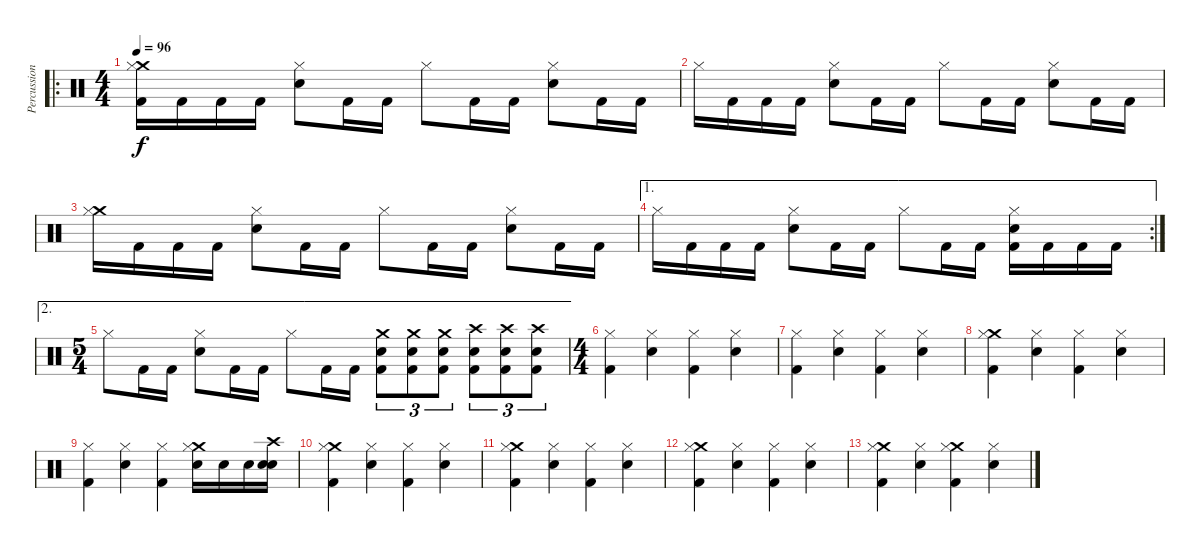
\track ("Percussion" "Percussion") {instrument percussion bank 255}
\staff {score}
\articulation defaults
\ro
\ts (4 4)
\tempo 96
\clef neutral
\ks c
("Crash medium (hit)" "Hi-Hat (closed)" "Kick (hit) 2").16{dy f} "Kick (hit) 2".16 "Kick (hit) 2".16 "Kick (hit) 2".16 ("Electric Snare (hit)" "Hi-Hat (closed)").8 "Kick (hit) 2".16 "Kick (hit) 2".16 "Hi-Hat (closed)".8 "Kick (hit) 2".16 "Kick (hit) 2".16 ("Electric Snare (hit)" "Hi-Hat (closed)").8 "Kick (hit) 2".16 "Kick (hit) 2".16 |
"Hi-Hat (closed)".16 "Kick (hit) 2".16 "Kick (hit) 2".16 "Kick (hit) 2".16 ("Electric Snare (hit)" "Hi-Hat (closed)").8 "Kick (hit) 2".16 "Kick (hit) 2".16 "Hi-Hat (closed)".8 "Kick (hit) 2".16 "Kick (hit) 2".16 ("Electric Snare (hit)" "Hi-Hat (closed)").8 "Kick (hit) 2".16 "Kick (hit) 2".16 |
("Crash medium (hit)" "Hi-Hat (closed)").16 "Kick (hit) 2".16 "Kick (hit) 2".16 "Kick (hit) 2".16 ("Electric Snare (hit)" "Hi-Hat (closed)").8 "Kick (hit) 2".16 "Kick (hit) 2".16 "Hi-Hat (closed)".8 "Kick (hit) 2".16 "Kick (hit) 2".16 ("Electric Snare (hit)" "Hi-Hat (closed)").8 "Kick (hit) 2".16 "Kick (hit) 2".16 |
\ae 1
\rc 2 "Hi-Hat (closed)".16 "Kick (hit) 2".16 "Kick (hit) 2".16 "Kick (hit) 2".16
("Electric Snare (hit)" "Hi-Hat (closed)").8 "Kick (hit) 2".16 "Kick (hit) 2".16 "Hi-Hat (closed)".8 "Kick (hit) 2".16 "Kick (hit) 2".16 ("Electric Snare (hit)" "Hi-Hat (closed)" "Kick (hit) 2").16 "Kick (hit) 2".16 "Kick (hit) 2".16 "Kick (hit) 2".16 |
\ae 2
\ts (5 4)
"Hi-Hat (closed)".8 "Kick (hit) 2".16 "Kick (hit) 2".16 ("Hi-Hat (closed)" "Electric Snare (hit)").8 "Kick (hit) 2".16 "Kick (hit) 2".16 "Hi-Hat (closed)".8 "Kick (hit) 2".16 "Kick (hit) 2".16 ("Crash medium (hit)" "Electric Snare (hit)" "Kick (hit) 2").8{tu (3 2)} ("Crash medium (hit)" "Electric Snare (hit)" "Kick (hit) 2").8{tu (3 2)} ("Crash medium (hit)" "Electric Snare (hit)" "Kick (hit) 2").8{tu (3 2)} ("Crash high (hit)" "Electric Snare (hit)" "Kick (hit) 2").8{tu (3 2)} ("Crash high (hit)" "Electric Snare (hit)" "Kick (hit) 2").8{tu (3 2)} ("Crash high (hit)" "Electric Snare (hit)" "Kick (hit) 2").8{tu (3 2)} |
\ts (4 4)
("Hi-Hat (closed)" "Kick (hit) 2").4 ("Hi-Hat (closed)" "Electric Snare (hit)").4 ("Hi-Hat (closed)" "Kick (hit) 2").4 ("Hi-Hat (closed)" "Electric Snare (hit)").4 |
("Hi-Hat (closed)" "Kick (hit) 2").4 ("Hi-Hat (closed)" "Electric Snare (hit)").4 ("Hi-Hat (closed)" "Kick (hit) 2").4 ("Hi-Hat (closed)" "Electric Snare (hit)").4 |
("Crash medium (hit)" "Hi-Hat (closed)" "Kick (hit) 2").4 ("Hi-Hat (closed)" "Electric Snare (hit)").4 ("Hi-Hat (closed)" "Kick (hit) 2").4 ("Hi-Hat (closed)" "Electric Snare (hit)").4 |
("Hi-Hat (closed)" "Kick (hit) 2").4 ("Hi-Hat (closed)" "Electric Snare (hit)").4 ("Hi-Hat (closed)" "Kick (hit) 2").4 ("Crash medium (hit)" "Hi-Hat (closed)" "Electric Snare (hit)").16 "Electric Snare (hit)".16 "Electric Snare (hit)".16 ("Crash high (hit)" "Snare (hit)" "Electric Snare (hit)").16 |
("Crash medium (hit)" "Hi-Hat (closed)" "Kick (hit) 2").4 ("Hi-Hat (closed)" "Electric Snare (hit)").4 ("Hi-Hat (closed)" "Kick (hit) 2").4 ("Hi-Hat (closed)" "Electric Snare (hit)").4 |
("Crash medium (hit)" "Hi-Hat (closed)" "Kick (hit) 2").4 ("Hi-Hat (closed)" "Electric Snare (hit)").4 ("Hi-Hat (closed)" "Kick (hit) 2").4 ("Hi-Hat (closed)" "Electric Snare (hit)").4 |
("Crash medium (hit)" "Hi-Hat (closed)" "Kick (hit) 2").4 ("Hi-Hat (closed)" "Electric Snare (hit)").4 ("Hi-Hat (closed)" "Kick (hit) 2").4 ("Hi-Hat (closed)" "Electric Snare (hit)").4 |
("Crash medium (hit)" "Hi-Hat (closed)" "Kick (hit) 2").4 ("Hi-Hat (closed)" "Electric Snare (hit)").4 ("Crash medium (hit)" "Hi-Hat (closed)" "Kick (hit) 2").4 ("Hi-Hat (closed)" "Electric Snare (hit)").4
